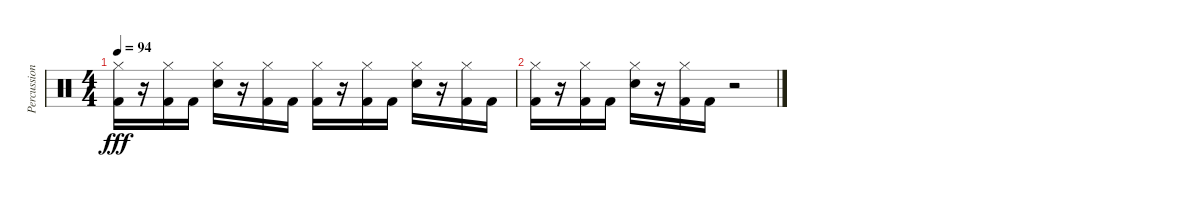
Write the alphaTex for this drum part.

\track ("Percussions" "Percussion") {instrument percussion}
\staff {score}
\articulation defaults
\ts (4 4)
\tempo 94
\clef neutral
\ks c
("Kick (hit) 2" "Hi-Hat (closed)").16{dy fff} r.16 ("Kick (hit) 2" "Hi-Hat (closed)").16 "Kick (hit) 2".16 ("Electric Snare (hit)" "Hi-Hat (closed)").16 r.16 ("Kick (hit) 2" "Hi-Hat (closed)").16 "Kick (hit) 2".16 ("Kick (hit) 2" "Hi-Hat (closed)").16 r.16 ("Kick (hit) 2" "Hi-Hat (closed)").16 "Kick (hit) 2".16 ("Electric Snare (hit)" "Hi-Hat (closed)").16 r.16 ("Kick (hit) 2" "Hi-Hat (closed)").16 "Kick (hit) 2".16 |
("Kick (hit) 2" "Hi-Hat (closed)").16 r.16 ("Kick (hit) 2" "Hi-Hat (closed)").16 "Kick (hit) 2".16 ("Electric Snare (hit)" "Hi-Hat (closed)").16 r.16 ("Kick (hit) 2" "Hi-Hat (closed)").16 "Kick (hit) 2".16 r.2
